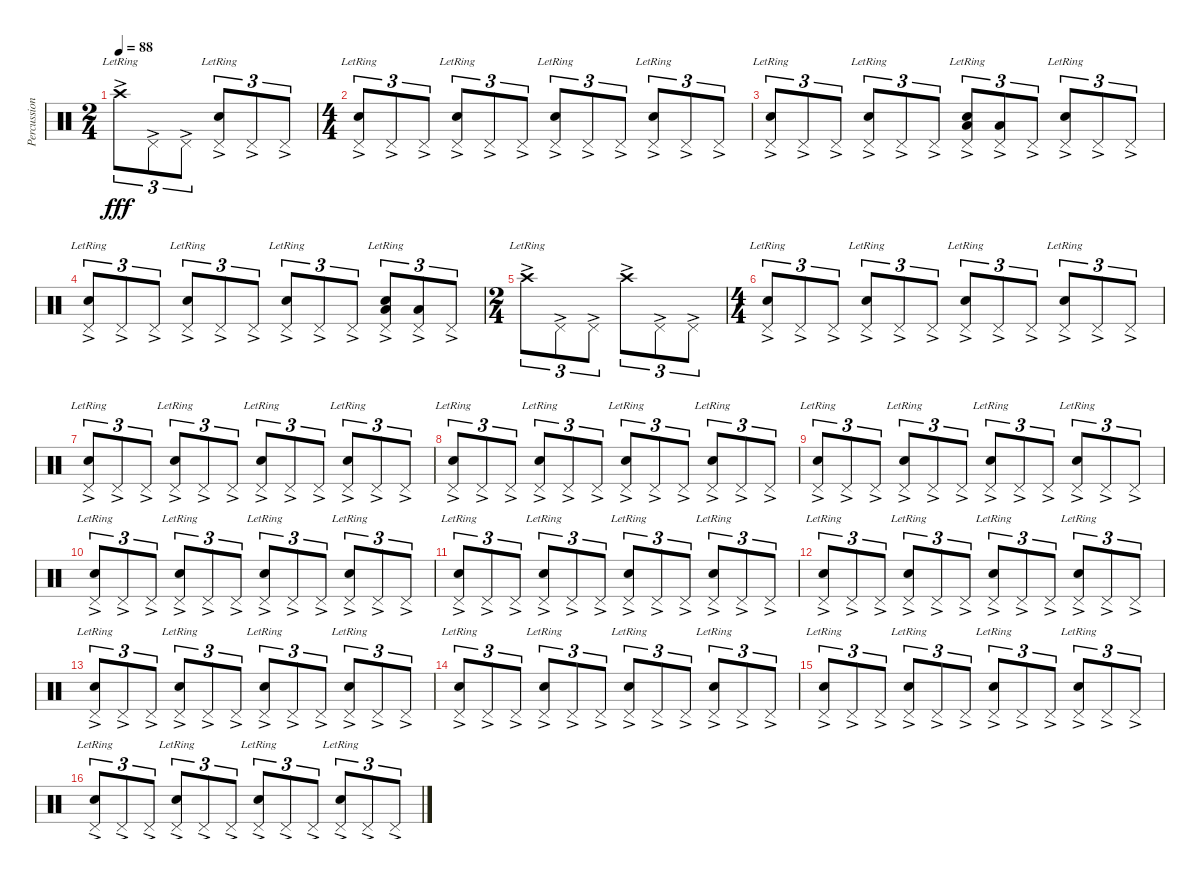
\track ("Percussions" "Percussion") {instrument percussion}
\staff {score}
\articulation defaults
\ts (2 4)
\tempo 88
\clef neutral
\ks c "Crash high (hit)"{ac lr}.8{tu (3 2) dy fff} "Pedal Hi-Hat (hit)"{ac}.8{tu (3 2)} "Pedal Hi-Hat (hit)"{ac}.8{tu (3 2)}
("Pedal Hi-Hat (hit)" "Snare (hit) 2"{ac lr}).8{tu (3 2)} "Pedal Hi-Hat (hit)"{ac}.8{tu (3 2)} "Pedal Hi-Hat (hit)"{ac}.8{tu (3 2)} |
\ts (4 4)
("Pedal Hi-Hat (hit)" "Snare (hit) 2"{ac lr}).8{tu (3 2)} "Pedal Hi-Hat (hit)"{ac}.8{tu (3 2)} "Pedal Hi-Hat (hit)"{ac}.8{tu (3 2)} ("Pedal Hi-Hat (hit)" "Snare (hit) 2"{ac lr}).8{tu (3 2)} "Pedal Hi-Hat (hit)"{ac}.8{tu (3 2)} "Pedal Hi-Hat (hit)"{ac}.8{tu (3 2)} ("Pedal Hi-Hat (hit)" "Snare (hit) 2"{ac lr}).8{tu (3 2)} "Pedal Hi-Hat (hit)"{ac}.8{tu (3 2)} "Pedal Hi-Hat (hit)"{ac}.8{tu (3 2)} ("Pedal Hi-Hat (hit)" "Snare (hit) 2"{ac lr}).8{tu (3 2)} "Pedal Hi-Hat (hit)"{ac}.8{tu (3 2)} "Pedal Hi-Hat (hit)"{ac}.8{tu (3 2)} |
("Pedal Hi-Hat (hit)" "Snare (hit) 2"{ac lr}).8{tu (3 2)} "Pedal Hi-Hat (hit)"{ac}.8{tu (3 2)} "Pedal Hi-Hat (hit)"{ac}.8{tu (3 2)} ("Pedal Hi-Hat (hit)" "Snare (hit) 2"{ac lr}).8{tu (3 2)} "Pedal Hi-Hat (hit)"{ac}.8{tu (3 2)} "Pedal Hi-Hat (hit)"{ac}.8{tu (3 2)} ("Low Floor Tom (hit)"{ac} "Pedal Hi-Hat (hit)" "Snare (hit) 2"{ac lr}).8{tu (3 2)} ("Low Floor Tom (hit)"{ac} "Pedal Hi-Hat (hit)"{ac}).8{tu (3 2)} "Pedal Hi-Hat (hit)"{ac}.8{tu (3 2)} ("Pedal Hi-Hat (hit)" "Snare (hit) 2"{ac lr}).8{tu (3 2)} "Pedal Hi-Hat (hit)"{ac}.8{tu (3 2)} "Pedal Hi-Hat (hit)"{ac}.8{tu (3 2)} |
("Pedal Hi-Hat (hit)" "Snare (hit) 2"{ac lr}).8{tu (3 2)} "Pedal Hi-Hat (hit)"{ac}.8{tu (3 2)} "Pedal Hi-Hat (hit)"{ac}.8{tu (3 2)} ("Pedal Hi-Hat (hit)" "Snare (hit) 2"{ac lr}).8{tu (3 2)} "Pedal Hi-Hat (hit)"{ac}.8{tu (3 2)} "Pedal Hi-Hat (hit)"{ac}.8{tu (3 2)} ("Pedal Hi-Hat (hit)" "Snare (hit) 2"{ac lr}).8{tu (3 2)} "Pedal Hi-Hat (hit)"{ac}.8{tu (3 2)} "Pedal Hi-Hat (hit)"{ac}.8{tu (3 2)} ("Low Floor Tom (hit)"{ac} "Pedal Hi-Hat (hit)" "Snare (hit) 2"{ac lr}).8{tu (3 2)} ("Low Floor Tom (hit)"{ac} "Pedal Hi-Hat (hit)").8{tu (3 2)} "Pedal Hi-Hat (hit)"{ac}.8{tu (3 2)} |
\ts (2 4)
"Crash high (hit)"{ac lr}.8{tu (3 2)} "Pedal Hi-Hat (hit)"{ac}.8{tu (3 2)} "Pedal Hi-Hat (hit)"{ac}.8{tu (3 2)} "Crash high (hit)"{ac}.8{tu (3 2)} "Pedal Hi-Hat (hit)"{ac}.8{tu (3 2)} "Pedal Hi-Hat (hit)"{ac}.8{tu (3 2)} |
\ts (4 4)
("Pedal Hi-Hat (hit)"{ac} "Snare (hit) 2"{ac lr}).8{tu (3 2)} "Pedal Hi-Hat (hit)"{ac}.8{tu (3 2)} "Pedal Hi-Hat (hit)"{ac}.8{tu (3 2)} ("Pedal Hi-Hat (hit)" "Snare (hit) 2"{ac lr}).8{tu (3 2)} "Pedal Hi-Hat (hit)"{ac}.8{tu (3 2)} "Pedal Hi-Hat (hit)"{ac}.8{tu (3 2)} ("Pedal Hi-Hat (hit)" "Snare (hit) 2"{ac lr}).8{tu (3 2)} "Pedal Hi-Hat (hit)"{ac}.8{tu (3 2)} "Pedal Hi-Hat (hit)"{ac}.8{tu (3 2)} ("Pedal Hi-Hat (hit)" "Snare (hit) 2"{ac lr}).8{tu (3 2)} "Pedal Hi-Hat (hit)"{ac}.8{tu (3 2)} "Pedal Hi-Hat (hit)"{ac}.8{tu (3 2)} |
("Pedal Hi-Hat (hit)"{ac} "Snare (hit) 2"{ac lr}).8{tu (3 2)} "Pedal Hi-Hat (hit)"{ac}.8{tu (3 2)} "Pedal Hi-Hat (hit)"{ac}.8{tu (3 2)} ("Pedal Hi-Hat (hit)" "Snare (hit) 2"{ac lr}).8{tu (3 2)} "Pedal Hi-Hat (hit)"{ac}.8{tu (3 2)} "Pedal Hi-Hat (hit)"{ac}.8{tu (3 2)} ("Pedal Hi-Hat (hit)" "Snare (hit) 2"{ac lr}).8{tu (3 2)} "Pedal Hi-Hat (hit)"{ac}.8{tu (3 2)} "Pedal Hi-Hat (hit)"{ac}.8{tu (3 2)} ("Pedal Hi-Hat (hit)" "Snare (hit) 2"{ac lr}).8{tu (3 2)} "Pedal Hi-Hat (hit)"{ac}.8{tu (3 2)} "Pedal Hi-Hat (hit)"{ac}.8{tu (3 2)} |
("Pedal Hi-Hat (hit)"{ac} "Snare (hit) 2"{ac lr}).8{tu (3 2)} "Pedal Hi-Hat (hit)"{ac}.8{tu (3 2)} "Pedal Hi-Hat (hit)"{ac}.8{tu (3 2)} ("Pedal Hi-Hat (hit)" "Snare (hit) 2"{ac lr}).8{tu (3 2)} "Pedal Hi-Hat (hit)"{ac}.8{tu (3 2)} "Pedal Hi-Hat (hit)"{ac}.8{tu (3 2)} ("Pedal Hi-Hat (hit)" "Snare (hit) 2"{ac lr}).8{tu (3 2)} "Pedal Hi-Hat (hit)"{ac}.8{tu (3 2)} "Pedal Hi-Hat (hit)"{ac}.8{tu (3 2)} ("Pedal Hi-Hat (hit)" "Snare (hit) 2"{ac lr}).8{tu (3 2)} "Pedal Hi-Hat (hit)"{ac}.8{tu (3 2)} "Pedal Hi-Hat (hit)"{ac}.8{tu (3 2)} |
("Pedal Hi-Hat (hit)"{ac} "Snare (hit) 2"{ac lr}).8{tu (3 2)} "Pedal Hi-Hat (hit)"{ac}.8{tu (3 2)} "Pedal Hi-Hat (hit)"{ac}.8{tu (3 2)} ("Pedal Hi-Hat (hit)" "Snare (hit) 2"{ac lr}).8{tu (3 2)} "Pedal Hi-Hat (hit)"{ac}.8{tu (3 2)} "Pedal Hi-Hat (hit)"{ac}.8{tu (3 2)} ("Pedal Hi-Hat (hit)" "Snare (hit) 2"{ac lr}).8{tu (3 2)} "Pedal Hi-Hat (hit)"{ac}.8{tu (3 2)} "Pedal Hi-Hat (hit)"{ac}.8{tu (3 2)} ("Pedal Hi-Hat (hit)" "Snare (hit) 2"{ac lr}).8{tu (3 2)} "Pedal Hi-Hat (hit)"{ac}.8{tu (3 2)} "Pedal Hi-Hat (hit)"{ac}.8{tu (3 2)} |
("Pedal Hi-Hat (hit)"{ac} "Snare (hit) 2"{ac lr}).8{tu (3 2)} "Pedal Hi-Hat (hit)"{ac}.8{tu (3 2)} "Pedal Hi-Hat (hit)"{ac}.8{tu (3 2)} ("Pedal Hi-Hat (hit)" "Snare (hit) 2"{ac lr}).8{tu (3 2)} "Pedal Hi-Hat (hit)"{ac}.8{tu (3 2)} "Pedal Hi-Hat (hit)"{ac}.8{tu (3 2)} ("Pedal Hi-Hat (hit)" "Snare (hit) 2"{ac lr}).8{tu (3 2)} "Pedal Hi-Hat (hit)"{ac}.8{tu (3 2)} "Pedal Hi-Hat (hit)"{ac}.8{tu (3 2)} ("Pedal Hi-Hat (hit)" "Snare (hit) 2"{ac lr}).8{tu (3 2)} "Pedal Hi-Hat (hit)"{ac}.8{tu (3 2)} "Pedal Hi-Hat (hit)"{ac}.8{tu (3 2)} |
("Pedal Hi-Hat (hit)"{ac} "Snare (hit) 2"{ac lr}).8{tu (3 2)} "Pedal Hi-Hat (hit)"{ac}.8{tu (3 2)} "Pedal Hi-Hat (hit)"{ac}.8{tu (3 2)} ("Pedal Hi-Hat (hit)" "Snare (hit) 2"{ac lr}).8{tu (3 2)} "Pedal Hi-Hat (hit)"{ac}.8{tu (3 2)} "Pedal Hi-Hat (hit)"{ac}.8{tu (3 2)} ("Pedal Hi-Hat (hit)" "Snare (hit) 2"{ac lr}).8{tu (3 2)} "Pedal Hi-Hat (hit)"{ac}.8{tu (3 2)} "Pedal Hi-Hat (hit)"{ac}.8{tu (3 2)} ("Pedal Hi-Hat (hit)" "Snare (hit) 2"{ac lr}).8{tu (3 2)} "Pedal Hi-Hat (hit)"{ac}.8{tu (3 2)} "Pedal Hi-Hat (hit)"{ac}.8{tu (3 2)} |
("Pedal Hi-Hat (hit)"{ac} "Snare (hit) 2"{ac lr}).8{tu (3 2)} "Pedal Hi-Hat (hit)"{ac}.8{tu (3 2)} "Pedal Hi-Hat (hit)"{ac}.8{tu (3 2)} ("Pedal Hi-Hat (hit)" "Snare (hit) 2"{ac lr}).8{tu (3 2)} "Pedal Hi-Hat (hit)"{ac}.8{tu (3 2)} "Pedal Hi-Hat (hit)"{ac}.8{tu (3 2)} ("Pedal Hi-Hat (hit)" "Snare (hit) 2"{ac lr}).8{tu (3 2)} "Pedal Hi-Hat (hit)"{ac}.8{tu (3 2)} "Pedal Hi-Hat (hit)"{ac}.8{tu (3 2)} ("Pedal Hi-Hat (hit)" "Snare (hit) 2"{ac lr}).8{tu (3 2)} "Pedal Hi-Hat (hit)"{ac}.8{tu (3 2)} "Pedal Hi-Hat (hit)"{ac}.8{tu (3 2)} |
("Pedal Hi-Hat (hit)"{ac} "Snare (hit) 2"{ac lr}).8{tu (3 2)} "Pedal Hi-Hat (hit)"{ac}.8{tu (3 2)} "Pedal Hi-Hat (hit)"{ac}.8{tu (3 2)} ("Pedal Hi-Hat (hit)" "Snare (hit) 2"{ac lr}).8{tu (3 2)} "Pedal Hi-Hat (hit)"{ac}.8{tu (3 2)} "Pedal Hi-Hat (hit)"{ac}.8{tu (3 2)} ("Pedal Hi-Hat (hit)" "Snare (hit) 2"{ac lr}).8{tu (3 2)} "Pedal Hi-Hat (hit)"{ac}.8{tu (3 2)} "Pedal Hi-Hat (hit)"{ac}.8{tu (3 2)} ("Pedal Hi-Hat (hit)" "Snare (hit) 2"{ac lr}).8{tu (3 2)} "Pedal Hi-Hat (hit)"{ac}.8{tu (3 2)} "Pedal Hi-Hat (hit)"{ac}.8{tu (3 2)} |
("Pedal Hi-Hat (hit)"{ac} "Snare (hit) 2"{ac lr}).8{tu (3 2)} "Pedal Hi-Hat (hit)"{ac}.8{tu (3 2)} "Pedal Hi-Hat (hit)"{ac}.8{tu (3 2)} ("Pedal Hi-Hat (hit)" "Snare (hit) 2"{ac lr}).8{tu (3 2)} "Pedal Hi-Hat (hit)"{ac}.8{tu (3 2)} "Pedal Hi-Hat (hit)"{ac}.8{tu (3 2)} ("Pedal Hi-Hat (hit)" "Snare (hit) 2"{ac lr}).8{tu (3 2)} "Pedal Hi-Hat (hit)"{ac}.8{tu (3 2)} "Pedal Hi-Hat (hit)"{ac}.8{tu (3 2)} ("Pedal Hi-Hat (hit)" "Snare (hit) 2"{ac lr}).8{tu (3 2)} "Pedal Hi-Hat (hit)"{ac}.8{tu (3 2)} "Pedal Hi-Hat (hit)"{ac}.8{tu (3 2)} |
("Pedal Hi-Hat (hit)"{ac} "Snare (hit) 2"{ac lr}).8{tu (3 2)} "Pedal Hi-Hat (hit)"{ac}.8{tu (3 2)} "Pedal Hi-Hat (hit)"{ac}.8{tu (3 2)} ("Pedal Hi-Hat (hit)" "Snare (hit) 2"{ac lr}).8{tu (3 2)} "Pedal Hi-Hat (hit)"{ac}.8{tu (3 2)} "Pedal Hi-Hat (hit)"{ac}.8{tu (3 2)} ("Pedal Hi-Hat (hit)" "Snare (hit) 2"{ac lr}).8{tu (3 2)} "Pedal Hi-Hat (hit)"{ac}.8{tu (3 2)} "Pedal Hi-Hat (hit)"{ac}.8{tu (3 2)} ("Pedal Hi-Hat (hit)" "Snare (hit) 2"{ac lr}).8{tu (3 2)} "Pedal Hi-Hat (hit)"{ac}.8{tu (3 2)} "Pedal Hi-Hat (hit)"{ac}.8{tu (3 2)} |
("Pedal Hi-Hat (hit)"{ac} "Snare (hit) 2"{ac lr}).8{tu (3 2)} "Pedal Hi-Hat (hit)"{ac}.8{tu (3 2)} "Pedal Hi-Hat (hit)"{ac}.8{tu (3 2)} ("Pedal Hi-Hat (hit)" "Snare (hit) 2"{ac lr}).8{tu (3 2)} "Pedal Hi-Hat (hit)"{ac}.8{tu (3 2)} "Pedal Hi-Hat (hit)"{ac}.8{tu (3 2)} ("Pedal Hi-Hat (hit)" "Snare (hit) 2"{ac lr}).8{tu (3 2)} "Pedal Hi-Hat (hit)"{ac}.8{tu (3 2)} "Pedal Hi-Hat (hit)"{ac}.8{tu (3 2)} ("Pedal Hi-Hat (hit)" "Snare (hit) 2"{ac lr}).8{tu (3 2)} "Pedal Hi-Hat (hit)"{ac}.8{tu (3 2)} "Pedal Hi-Hat (hit)"{ac}.8{tu (3 2)}
